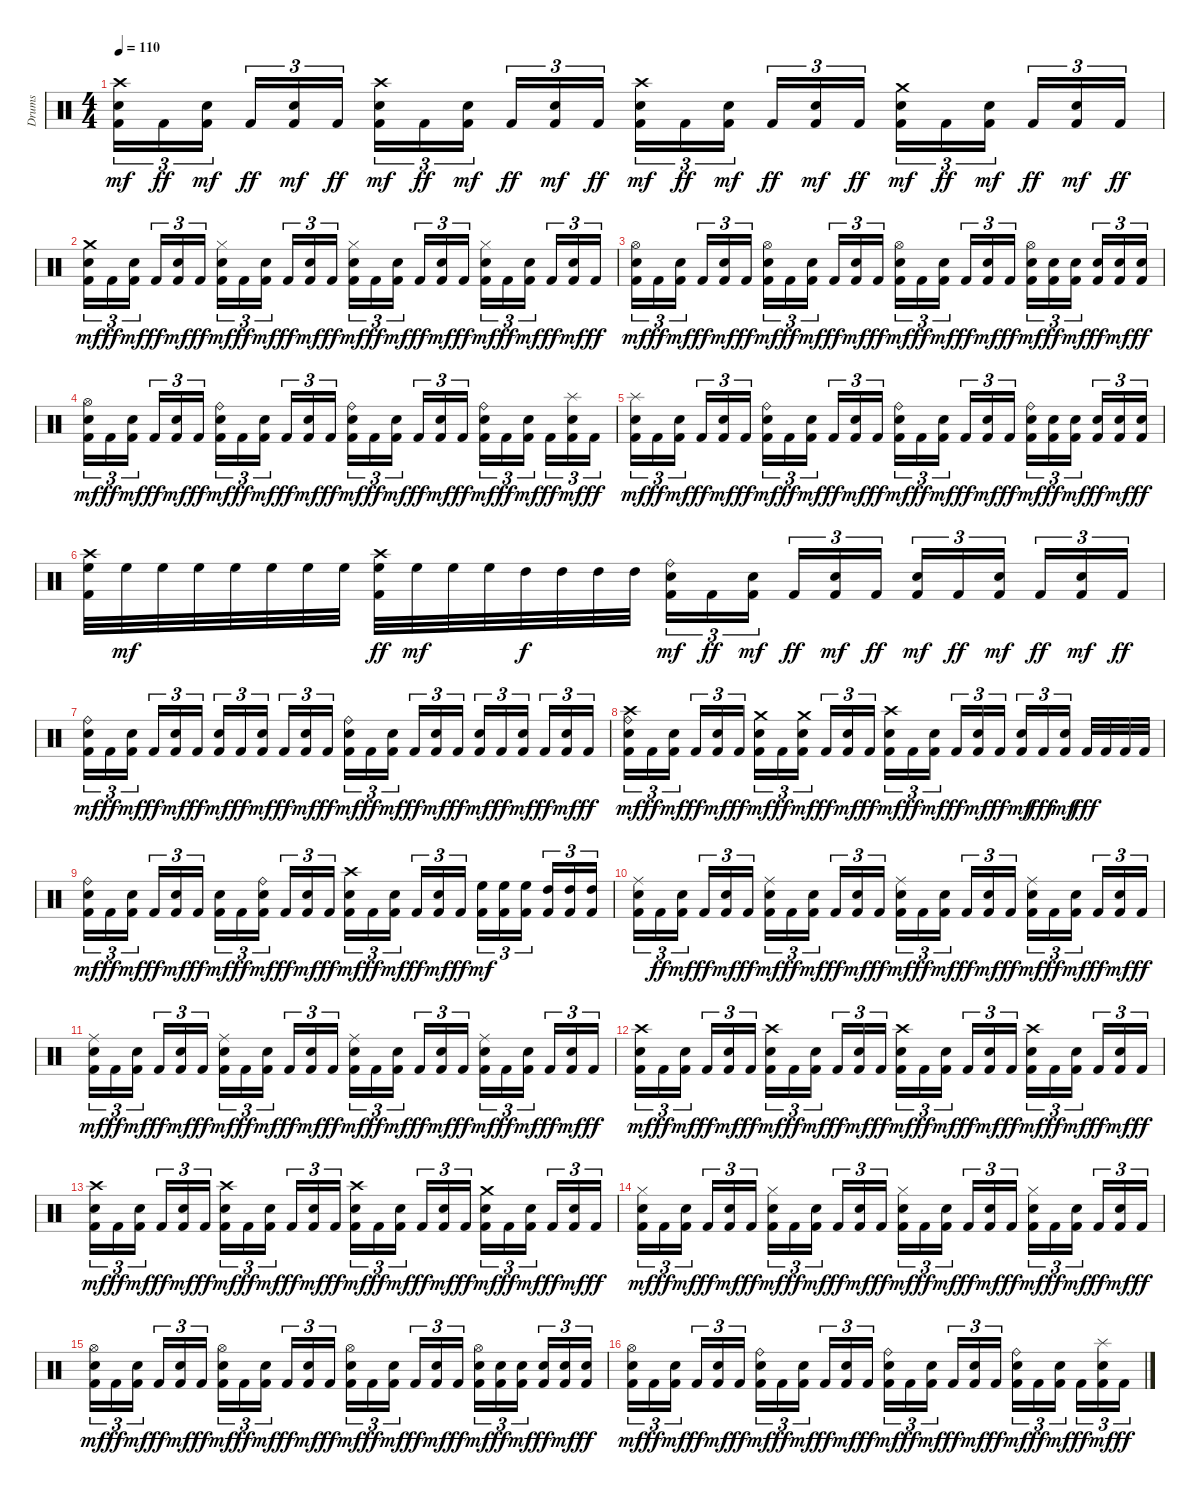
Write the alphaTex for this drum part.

\track ("Drums" "Drums") {instrument percussion}
\staff {score}
\articulation defaults
\ts (4 4)
\tempo 110
\clef neutral
\ks c
("Kick (hit) 2" "Electric Snare (hit)" "Crash high (hit)").16{tu (3 2) dy mf} "Kick (hit) 2".16{tu (3 2) dy ff} ("Kick (hit) 2" "Electric Snare (hit)").16{tu (3 2) dy mf beam splitsecondary} "Kick (hit) 2".16{tu (3 2) dy ff} ("Kick (hit) 2" "Electric Snare (hit)").16{tu (3 2) dy mf} "Kick (hit) 2".16{tu (3 2) dy ff} ("Kick (hit) 2" "Electric Snare (hit)" "Crash high (hit)").16{tu (3 2) dy mf} "Kick (hit) 2".16{tu (3 2) dy ff} ("Kick (hit) 2" "Electric Snare (hit)").16{tu (3 2) dy mf beam splitsecondary} "Kick (hit) 2".16{tu (3 2) dy ff} ("Kick (hit) 2" "Electric Snare (hit)").16{tu (3 2) dy mf} "Kick (hit) 2".16{tu (3 2) dy ff} ("Kick (hit) 2" "Electric Snare (hit)" "Crash high (hit)").16{tu (3 2) dy mf} "Kick (hit) 2".16{tu (3 2) dy ff} ("Kick (hit) 2" "Electric Snare (hit)").16{tu (3 2) dy mf beam splitsecondary} "Kick (hit) 2".16{tu (3 2) dy ff} ("Kick (hit) 2" "Electric Snare (hit)").16{tu (3 2) dy mf} "Kick (hit) 2".16{tu (3 2) dy ff} ("Kick (hit) 2" "Electric Snare (hit)" "Crash medium (hit)").16{tu (3 2) dy mf} "Kick (hit) 2".16{tu (3 2) dy ff} ("Kick (hit) 2" "Electric Snare (hit)").16{tu (3 2) dy mf beam splitsecondary} "Kick (hit) 2".16{tu (3 2) dy ff} ("Kick (hit) 2" "Electric Snare (hit)").16{tu (3 2) dy mf} "Kick (hit) 2".16{tu (3 2) dy ff} |
("Kick (hit) 2" "Electric Snare (hit)" "Crash medium (hit)").16{tu (3 2) dy mf} "Kick (hit) 2".16{tu (3 2) dy ff} ("Kick (hit) 2" "Electric Snare (hit)").16{tu (3 2) dy mf beam splitsecondary} "Kick (hit) 2".16{tu (3 2) dy ff} ("Kick (hit) 2" "Electric Snare (hit)").16{tu (3 2) dy mf} "Kick (hit) 2".16{tu (3 2) dy ff} ("Kick (hit) 2" "Electric Snare (hit)" "Hi-Hat (closed)").16{tu (3 2) dy mf} "Kick (hit) 2".16{tu (3 2) dy ff} ("Kick (hit) 2" "Electric Snare (hit)").16{tu (3 2) dy mf beam splitsecondary} "Kick (hit) 2".16{tu (3 2) dy ff} ("Kick (hit) 2" "Electric Snare (hit)").16{tu (3 2) dy mf} "Kick (hit) 2".16{tu (3 2) dy ff} ("Kick (hit) 2" "Electric Snare (hit)" "Hi-Hat (closed)").16{tu (3 2) dy mf} "Kick (hit) 2".16{tu (3 2) dy ff} ("Kick (hit) 2" "Electric Snare (hit)").16{tu (3 2) dy mf beam splitsecondary} "Kick (hit) 2".16{tu (3 2) dy ff} ("Kick (hit) 2" "Electric Snare (hit)").16{tu (3 2) dy mf} "Kick (hit) 2".16{tu (3 2) dy ff} ("Kick (hit) 2" "Electric Snare (hit)" "Hi-Hat (closed)").16{tu (3 2) dy mf} "Kick (hit) 2".16{tu (3 2) dy ff} ("Kick (hit) 2" "Electric Snare (hit)").16{tu (3 2) dy mf beam splitsecondary} "Kick (hit) 2".16{tu (3 2) dy ff} ("Kick (hit) 2" "Electric Snare (hit)").16{tu (3 2) dy mf} "Kick (hit) 2".16{tu (3 2) dy ff} |
("Kick (hit) 2" "Electric Snare (hit)" "Hi-Hat (open)").16{tu (3 2) dy mf} "Kick (hit) 2".16{tu (3 2) dy ff} ("Kick (hit) 2" "Electric Snare (hit)").16{tu (3 2) dy mf beam splitsecondary} "Kick (hit) 2".16{tu (3 2) dy ff} ("Kick (hit) 2" "Electric Snare (hit)").16{tu (3 2) dy mf} "Kick (hit) 2".16{tu (3 2) dy ff} ("Kick (hit) 2" "Electric Snare (hit)" "Hi-Hat (open)").16{tu (3 2) dy mf} "Kick (hit) 2".16{tu (3 2) dy ff} ("Kick (hit) 2" "Electric Snare (hit)").16{tu (3 2) dy mf beam splitsecondary} "Kick (hit) 2".16{tu (3 2) dy ff} ("Kick (hit) 2" "Electric Snare (hit)").16{tu (3 2) dy mf} "Kick (hit) 2".16{tu (3 2) dy ff} ("Kick (hit) 2" "Electric Snare (hit)" "Hi-Hat (open)").16{tu (3 2) dy mf} "Kick (hit) 2".16{tu (3 2) dy ff} ("Kick (hit) 2" "Electric Snare (hit)").16{tu (3 2) dy mf beam splitsecondary} "Kick (hit) 2".16{tu (3 2) dy ff} ("Kick (hit) 2" "Electric Snare (hit)").16{tu (3 2) dy mf} "Kick (hit) 2".16{tu (3 2) dy ff} ("Kick (hit) 2" "Electric Snare (hit)" "Hi-Hat (open)").16{tu (3 2) dy mf} ("Kick (hit) 2" "Electric Snare (hit)").16{tu (3 2) dy ff} ("Kick (hit) 2" "Electric Snare (hit)").16{tu (3 2) dy mf beam splitsecondary} ("Kick (hit) 2" "Electric Snare (hit)").16{tu (3 2) dy ff} ("Kick (hit) 2" "Electric Snare (hit)").16{tu (3 2) dy mf} ("Kick (hit) 2" "Electric Snare (hit)").16{tu (3 2) dy ff} |
("Kick (hit) 2" "Electric Snare (hit)" "Hi-Hat (open)").16{tu (3 2) dy mf} "Kick (hit) 2".16{tu (3 2) dy ff} ("Kick (hit) 2" "Electric Snare (hit)").16{tu (3 2) dy mf beam splitsecondary} "Kick (hit) 2".16{tu (3 2) dy ff} ("Kick (hit) 2" "Electric Snare (hit)").16{tu (3 2) dy mf} "Kick (hit) 2".16{tu (3 2) dy ff} ("Kick (hit) 2" "Electric Snare (hit)" "Ride (bell)").16{tu (3 2) dy mf} "Kick (hit) 2".16{tu (3 2) dy ff} ("Kick (hit) 2" "Electric Snare (hit)").16{tu (3 2) dy mf beam splitsecondary} "Kick (hit) 2".16{tu (3 2) dy ff} ("Kick (hit) 2" "Electric Snare (hit)").16{tu (3 2) dy mf} "Kick (hit) 2".16{tu (3 2) dy ff} ("Kick (hit) 2" "Electric Snare (hit)" "Ride (bell)").16{tu (3 2) dy mf} "Kick (hit) 2".16{tu (3 2) dy ff} ("Kick (hit) 2" "Electric Snare (hit)").16{tu (3 2) dy mf beam splitsecondary} "Kick (hit) 2".16{tu (3 2) dy ff} ("Kick (hit) 2" "Electric Snare (hit)").16{tu (3 2) dy mf} "Kick (hit) 2".16{tu (3 2) dy ff} ("Kick (hit) 2" "Electric Snare (hit)" "Ride (bell)").16{tu (3 2) dy mf} "Kick (hit) 2".16{tu (3 2) dy ff} ("Kick (hit) 2" "Electric Snare (hit)").16{tu (3 2) dy mf beam splitsecondary} "Kick (hit) 2".16{tu (3 2) dy ff} ("Kick (hit) 2" "Electric Snare (hit)" "Splash (hit)").16{tu (3 2) dy mf} "Kick (hit) 2".16{tu (3 2) dy ff} |
("Kick (hit) 2" "Electric Snare (hit)" "Splash (hit)").16{tu (3 2) dy mf} "Kick (hit) 2".16{tu (3 2) dy ff} ("Kick (hit) 2" "Electric Snare (hit)").16{tu (3 2) dy mf beam splitsecondary} "Kick (hit) 2".16{tu (3 2) dy ff} ("Kick (hit) 2" "Electric Snare (hit)").16{tu (3 2) dy mf} "Kick (hit) 2".16{tu (3 2) dy ff} ("Kick (hit) 2" "Electric Snare (hit)" "Ride (bell)").16{tu (3 2) dy mf} "Kick (hit) 2".16{tu (3 2) dy ff} ("Kick (hit) 2" "Electric Snare (hit)").16{tu (3 2) dy mf beam splitsecondary} "Kick (hit) 2".16{tu (3 2) dy ff} ("Kick (hit) 2" "Electric Snare (hit)").16{tu (3 2) dy mf} "Kick (hit) 2".16{tu (3 2) dy ff} ("Kick (hit) 2" "Electric Snare (hit)" "Ride (bell)").16{tu (3 2) dy mf} "Kick (hit) 2".16{tu (3 2) dy ff} ("Kick (hit) 2" "Electric Snare (hit)").16{tu (3 2) dy mf beam splitsecondary} "Kick (hit) 2".16{tu (3 2) dy ff} ("Kick (hit) 2" "Electric Snare (hit)").16{tu (3 2) dy mf} "Kick (hit) 2".16{tu (3 2) dy ff} ("Kick (hit) 2" "Electric Snare (hit)" "Ride (bell)").16{tu (3 2) dy mf} ("Kick (hit) 2" "Electric Snare (hit)").16{tu (3 2) dy ff} ("Kick (hit) 2" "Electric Snare (hit)").16{tu (3 2) dy mf beam splitsecondary} ("Kick (hit) 2" "Electric Snare (hit)").16{tu (3 2) dy ff} ("Kick (hit) 2" "Electric Snare (hit)").16{tu (3 2) dy mf} ("Kick (hit) 2" "Electric Snare (hit)").16{tu (3 2) dy ff} |
("Kick (hit) 2" "High Floor Tom (hit)" "Crash high (hit)").32 "High Floor Tom (hit)".32{dy mf} "High Floor Tom (hit)".32 "High Floor Tom (hit)".32 "High Floor Tom (hit)".32 "High Floor Tom (hit)".32 "High Floor Tom (hit)".32 "High Floor Tom (hit)".32 ("Kick (hit) 2" "High Floor Tom (hit)" "Crash high (hit)").32{dy ff} "High Floor Tom (hit)".32{dy mf} "High Floor Tom (hit)".32 "High Floor Tom (hit)".32 "High Tom (hit)".32{dy f} "High Tom (hit)".32 "High Tom (hit)".32 "High Tom (hit)".32 ("Kick (hit) 2" "Electric Snare (hit)" "Ride (bell)").16{tu (3 2) dy mf} "Kick (hit) 2".16{tu (3 2) dy ff} ("Kick (hit) 2" "Electric Snare (hit)").16{tu (3 2) dy mf beam splitsecondary} "Kick (hit) 2".16{tu (3 2) dy ff} ("Kick (hit) 2" "Electric Snare (hit)").16{tu (3 2) dy mf} "Kick (hit) 2".16{tu (3 2) dy ff} ("Kick (hit) 2" "Electric Snare (hit)").16{tu (3 2) dy mf} "Kick (hit) 2".16{tu (3 2) dy ff} ("Kick (hit) 2" "Electric Snare (hit)").16{tu (3 2) dy mf beam splitsecondary} "Kick (hit) 2".16{tu (3 2) dy ff} ("Kick (hit) 2" "Electric Snare (hit)").16{tu (3 2) dy mf} "Kick (hit) 2".16{tu (3 2) dy ff} |
("Kick (hit) 2" "Electric Snare (hit)" "Ride (bell)").16{tu (3 2) dy mf} "Kick (hit) 2".16{tu (3 2) dy ff} ("Kick (hit) 2" "Electric Snare (hit)").16{tu (3 2) dy mf beam splitsecondary} "Kick (hit) 2".16{tu (3 2) dy ff} ("Kick (hit) 2" "Electric Snare (hit)").16{tu (3 2) dy mf} "Kick (hit) 2".16{tu (3 2) dy ff} ("Kick (hit) 2" "Electric Snare (hit)").16{tu (3 2) dy mf} "Kick (hit) 2".16{tu (3 2) dy ff} ("Kick (hit) 2" "Electric Snare (hit)").16{tu (3 2) dy mf beam splitsecondary} "Kick (hit) 2".16{tu (3 2) dy ff} ("Kick (hit) 2" "Electric Snare (hit)").16{tu (3 2) dy mf} "Kick (hit) 2".16{tu (3 2) dy ff} ("Kick (hit) 2" "Electric Snare (hit)" "Ride (bell)").16{tu (3 2) dy mf} "Kick (hit) 2".16{tu (3 2) dy ff} ("Kick (hit) 2" "Electric Snare (hit)").16{tu (3 2) dy mf beam splitsecondary} "Kick (hit) 2".16{tu (3 2) dy ff} ("Kick (hit) 2" "Electric Snare (hit)").16{tu (3 2) dy mf} "Kick (hit) 2".16{tu (3 2) dy ff} ("Kick (hit) 2" "Electric Snare (hit)").16{tu (3 2) dy mf} "Kick (hit) 2".16{tu (3 2) dy ff} ("Kick (hit) 2" "Electric Snare (hit)").16{tu (3 2) dy mf beam splitsecondary} "Kick (hit) 2".16{tu (3 2) dy ff} ("Kick (hit) 2" "Electric Snare (hit)").16{tu (3 2) dy mf} "Kick (hit) 2".16{tu (3 2) dy ff} |
("Kick (hit) 2" "Electric Snare (hit)" "Crash high (hit)" "Ride (bell)").16{tu (3 2) dy mf} "Kick (hit) 2".16{tu (3 2) dy ff} ("Kick (hit) 2" "Electric Snare (hit)").16{tu (3 2) dy mf beam splitsecondary} "Kick (hit) 2".16{tu (3 2) dy ff} ("Kick (hit) 2" "Electric Snare (hit)").16{tu (3 2) dy mf} "Kick (hit) 2".16{tu (3 2) dy ff} ("Kick (hit) 2" "Electric Snare (hit)" "Crash medium (hit)").16{tu (3 2) dy mf} "Kick (hit) 2".16{tu (3 2) dy ff} ("Kick (hit) 2" "Electric Snare (hit)" "Crash medium (hit)").16{tu (3 2) dy mf beam splitsecondary} "Kick (hit) 2".16{tu (3 2) dy ff} ("Kick (hit) 2" "Electric Snare (hit)").16{tu (3 2) dy mf} "Kick (hit) 2".16{tu (3 2) dy ff} ("Kick (hit) 2" "Electric Snare (hit)" "Crash high (hit)").16{tu (3 2) dy mf} "Kick (hit) 2".16{tu (3 2) dy ff} ("Kick (hit) 2" "Electric Snare (hit)").16{tu (3 2) dy mf beam splitsecondary} "Kick (hit) 2".16{tu (3 2) dy ff} ("Kick (hit) 2" "Electric Snare (hit)").16{tu (3 2) dy mf} "Kick (hit) 2".16{tu (3 2) dy ff} ("Kick (hit) 2" "Electric Snare (hit)").16{tu (3 2) dy mf} "Kick (hit) 2".16{tu (3 2) dy fff} ("Kick (hit) 2" "Electric Snare (hit)").16{tu (3 2) dy mf beam splitsecondary} "Kick (hit) 2".32{dy fff} "Kick (hit) 2".32 "Kick (hit) 2".32 "Kick (hit) 2".32 |
("Kick (hit) 2" "Electric Snare (hit)" "Ride (bell)").16{tu (3 2) dy mf} "Kick (hit) 2".16{tu (3 2) dy ff} ("Kick (hit) 2" "Electric Snare (hit)").16{tu (3 2) dy mf beam splitsecondary} "Kick (hit) 2".16{tu (3 2) dy ff} ("Kick (hit) 2" "Electric Snare (hit)").16{tu (3 2) dy mf} "Kick (hit) 2".16{tu (3 2) dy ff} ("Kick (hit) 2" "Electric Snare (hit)").16{tu (3 2) dy mf} "Kick (hit) 2".16{tu (3 2) dy ff} ("Kick (hit) 2" "Electric Snare (hit)" "Ride (bell)").16{tu (3 2) dy mf beam splitsecondary} "Kick (hit) 2".16{tu (3 2) dy ff} ("Kick (hit) 2" "Electric Snare (hit)").16{tu (3 2) dy mf} "Kick (hit) 2".16{tu (3 2) dy ff} ("Kick (hit) 2" "Electric Snare (hit)" "Crash high (hit)").16{tu (3 2) dy mf} "Kick (hit) 2".16{tu (3 2) dy ff} ("Kick (hit) 2" "Electric Snare (hit)").16{tu (3 2) dy mf beam splitsecondary} "Kick (hit) 2".16{tu (3 2) dy ff} ("Kick (hit) 2" "Electric Snare (hit)").16{tu (3 2) dy mf} "Kick (hit) 2".16{tu (3 2) dy ff} ("Kick (hit) 2" "High Floor Tom (hit)").16{tu (3 2) dy mf} ("Kick (hit) 2" "High Floor Tom (hit)").16{tu (3 2)} ("Kick (hit) 2" "High Floor Tom (hit)").16{tu (3 2) beam splitsecondary} ("Kick (hit) 2" "High Tom (hit)").16{tu (3 2)} ("Kick (hit) 2" "High Tom (hit)").16{tu (3 2)} ("Kick (hit) 2" "High Tom (hit)").16{tu (3 2)} |
("Kick (hit) 2" "Electric Snare (hit)" "Ride (middle)").16{tu (3 2)} "Kick (hit) 2".16{tu (3 2) dy ff} ("Kick (hit) 2" "Electric Snare (hit)").16{tu (3 2) dy mf beam splitsecondary} "Kick (hit) 2".16{tu (3 2) dy ff} ("Kick (hit) 2" "Electric Snare (hit)").16{tu (3 2) dy mf} "Kick (hit) 2".16{tu (3 2) dy ff} ("Kick (hit) 2" "Electric Snare (hit)" "Ride (middle)").16{tu (3 2) dy mf} "Kick (hit) 2".16{tu (3 2) dy ff} ("Kick (hit) 2" "Electric Snare (hit)").16{tu (3 2) dy mf beam splitsecondary} "Kick (hit) 2".16{tu (3 2) dy ff} ("Kick (hit) 2" "Electric Snare (hit)").16{tu (3 2) dy mf} "Kick (hit) 2".16{tu (3 2) dy ff} ("Kick (hit) 2" "Electric Snare (hit)" "Ride (middle)").16{tu (3 2) dy mf} "Kick (hit) 2".16{tu (3 2) dy ff} ("Kick (hit) 2" "Electric Snare (hit)").16{tu (3 2) dy mf beam splitsecondary} "Kick (hit) 2".16{tu (3 2) dy ff} ("Kick (hit) 2" "Electric Snare (hit)").16{tu (3 2) dy mf} "Kick (hit) 2".16{tu (3 2) dy ff} ("Kick (hit) 2" "Electric Snare (hit)" "Ride (middle)").16{tu (3 2) dy mf} "Kick (hit) 2".16{tu (3 2) dy ff} ("Kick (hit) 2" "Electric Snare (hit)").16{tu (3 2) dy mf beam splitsecondary} "Kick (hit) 2".16{tu (3 2) dy ff} ("Kick (hit) 2" "Electric Snare (hit)").16{tu (3 2) dy mf} "Kick (hit) 2".16{tu (3 2) dy ff} |
("Kick (hit) 2" "Electric Snare (hit)" "Ride (middle)").16{tu (3 2) dy mf} "Kick (hit) 2".16{tu (3 2) dy ff} ("Kick (hit) 2" "Electric Snare (hit)").16{tu (3 2) dy mf beam splitsecondary} "Kick (hit) 2".16{tu (3 2) dy ff} ("Kick (hit) 2" "Electric Snare (hit)").16{tu (3 2) dy mf} "Kick (hit) 2".16{tu (3 2) dy ff} ("Kick (hit) 2" "Electric Snare (hit)" "Ride (middle)").16{tu (3 2) dy mf} "Kick (hit) 2".16{tu (3 2) dy ff} ("Kick (hit) 2" "Electric Snare (hit)").16{tu (3 2) dy mf beam splitsecondary} "Kick (hit) 2".16{tu (3 2) dy ff} ("Kick (hit) 2" "Electric Snare (hit)").16{tu (3 2) dy mf} "Kick (hit) 2".16{tu (3 2) dy ff} ("Kick (hit) 2" "Electric Snare (hit)" "Ride (middle)").16{tu (3 2) dy mf} "Kick (hit) 2".16{tu (3 2) dy ff} ("Kick (hit) 2" "Electric Snare (hit)").16{tu (3 2) dy mf beam splitsecondary} "Kick (hit) 2".16{tu (3 2) dy ff} ("Kick (hit) 2" "Electric Snare (hit)").16{tu (3 2) dy mf} "Kick (hit) 2".16{tu (3 2) dy ff} ("Kick (hit) 2" "Electric Snare (hit)" "Ride (middle)").16{tu (3 2) dy mf} "Kick (hit) 2".16{tu (3 2) dy ff} ("Kick (hit) 2" "Electric Snare (hit)").16{tu (3 2) dy mf beam splitsecondary} "Kick (hit) 2".16{tu (3 2) dy ff} ("Kick (hit) 2" "Electric Snare (hit)").16{tu (3 2) dy mf} "Kick (hit) 2".16{tu (3 2) dy ff} |
("Kick (hit) 2" "Electric Snare (hit)" "Crash high (hit)").16{tu (3 2) dy mf} "Kick (hit) 2".16{tu (3 2) dy ff} ("Kick (hit) 2" "Electric Snare (hit)").16{tu (3 2) dy mf beam splitsecondary} "Kick (hit) 2".16{tu (3 2) dy ff} ("Kick (hit) 2" "Electric Snare (hit)").16{tu (3 2) dy mf} "Kick (hit) 2".16{tu (3 2) dy ff} ("Kick (hit) 2" "Electric Snare (hit)" "Crash high (hit)").16{tu (3 2) dy mf} "Kick (hit) 2".16{tu (3 2) dy ff} ("Kick (hit) 2" "Electric Snare (hit)").16{tu (3 2) dy mf beam splitsecondary} "Kick (hit) 2".16{tu (3 2) dy ff} ("Kick (hit) 2" "Electric Snare (hit)").16{tu (3 2) dy mf} "Kick (hit) 2".16{tu (3 2) dy ff} ("Kick (hit) 2" "Electric Snare (hit)" "Crash high (hit)").16{tu (3 2) dy mf} "Kick (hit) 2".16{tu (3 2) dy ff} ("Kick (hit) 2" "Electric Snare (hit)").16{tu (3 2) dy mf beam splitsecondary} "Kick (hit) 2".16{tu (3 2) dy ff} ("Kick (hit) 2" "Electric Snare (hit)").16{tu (3 2) dy mf} "Kick (hit) 2".16{tu (3 2) dy ff} ("Kick (hit) 2" "Electric Snare (hit)" "Crash high (hit)").16{tu (3 2) dy mf} "Kick (hit) 2".16{tu (3 2) dy ff} ("Kick (hit) 2" "Electric Snare (hit)").16{tu (3 2) dy mf beam splitsecondary} "Kick (hit) 2".16{tu (3 2) dy ff} ("Kick (hit) 2" "Electric Snare (hit)").16{tu (3 2) dy mf} "Kick (hit) 2".16{tu (3 2) dy ff} |
("Kick (hit) 2" "Electric Snare (hit)" "Crash high (hit)").16{tu (3 2) dy mf} "Kick (hit) 2".16{tu (3 2) dy ff} ("Kick (hit) 2" "Electric Snare (hit)").16{tu (3 2) dy mf beam splitsecondary} "Kick (hit) 2".16{tu (3 2) dy ff} ("Kick (hit) 2" "Electric Snare (hit)").16{tu (3 2) dy mf} "Kick (hit) 2".16{tu (3 2) dy ff} ("Kick (hit) 2" "Electric Snare (hit)" "Crash high (hit)").16{tu (3 2) dy mf} "Kick (hit) 2".16{tu (3 2) dy ff} ("Kick (hit) 2" "Electric Snare (hit)").16{tu (3 2) dy mf beam splitsecondary} "Kick (hit) 2".16{tu (3 2) dy ff} ("Kick (hit) 2" "Electric Snare (hit)").16{tu (3 2) dy mf} "Kick (hit) 2".16{tu (3 2) dy ff} ("Kick (hit) 2" "Electric Snare (hit)" "Crash high (hit)").16{tu (3 2) dy mf} "Kick (hit) 2".16{tu (3 2) dy ff} ("Kick (hit) 2" "Electric Snare (hit)").16{tu (3 2) dy mf beam splitsecondary} "Kick (hit) 2".16{tu (3 2) dy ff} ("Kick (hit) 2" "Electric Snare (hit)").16{tu (3 2) dy mf} "Kick (hit) 2".16{tu (3 2) dy ff} ("Kick (hit) 2" "Electric Snare (hit)" "Crash medium (hit)").16{tu (3 2) dy mf} "Kick (hit) 2".16{tu (3 2) dy ff} ("Kick (hit) 2" "Electric Snare (hit)").16{tu (3 2) dy mf beam splitsecondary} "Kick (hit) 2".16{tu (3 2) dy ff} ("Kick (hit) 2" "Electric Snare (hit)").16{tu (3 2) dy mf} "Kick (hit) 2".16{tu (3 2) dy ff} |
("Kick (hit) 2" "Electric Snare (hit)" "Hi-Hat (closed)").16{tu (3 2) dy mf} "Kick (hit) 2".16{tu (3 2) dy ff} ("Kick (hit) 2" "Electric Snare (hit)").16{tu (3 2) dy mf beam splitsecondary} "Kick (hit) 2".16{tu (3 2) dy ff} ("Kick (hit) 2" "Electric Snare (hit)").16{tu (3 2) dy mf} "Kick (hit) 2".16{tu (3 2) dy ff} ("Kick (hit) 2" "Electric Snare (hit)" "Hi-Hat (closed)").16{tu (3 2) dy mf} "Kick (hit) 2".16{tu (3 2) dy ff} ("Kick (hit) 2" "Electric Snare (hit)").16{tu (3 2) dy mf beam splitsecondary} "Kick (hit) 2".16{tu (3 2) dy ff} ("Kick (hit) 2" "Electric Snare (hit)").16{tu (3 2) dy mf} "Kick (hit) 2".16{tu (3 2) dy ff} ("Kick (hit) 2" "Electric Snare (hit)" "Hi-Hat (closed)").16{tu (3 2) dy mf} "Kick (hit) 2".16{tu (3 2) dy ff} ("Kick (hit) 2" "Electric Snare (hit)").16{tu (3 2) dy mf beam splitsecondary} "Kick (hit) 2".16{tu (3 2) dy ff} ("Kick (hit) 2" "Electric Snare (hit)").16{tu (3 2) dy mf} "Kick (hit) 2".16{tu (3 2) dy ff} ("Kick (hit) 2" "Electric Snare (hit)" "Hi-Hat (closed)").16{tu (3 2) dy mf} "Kick (hit) 2".16{tu (3 2) dy ff} ("Kick (hit) 2" "Electric Snare (hit)").16{tu (3 2) dy mf beam splitsecondary} "Kick (hit) 2".16{tu (3 2) dy ff} ("Kick (hit) 2" "Electric Snare (hit)").16{tu (3 2) dy mf} "Kick (hit) 2".16{tu (3 2) dy ff} |
("Kick (hit) 2" "Electric Snare (hit)" "Hi-Hat (open)").16{tu (3 2) dy mf} "Kick (hit) 2".16{tu (3 2) dy ff} ("Kick (hit) 2" "Electric Snare (hit)").16{tu (3 2) dy mf beam splitsecondary} "Kick (hit) 2".16{tu (3 2) dy ff} ("Kick (hit) 2" "Electric Snare (hit)").16{tu (3 2) dy mf} "Kick (hit) 2".16{tu (3 2) dy ff} ("Kick (hit) 2" "Electric Snare (hit)" "Hi-Hat (open)").16{tu (3 2) dy mf} "Kick (hit) 2".16{tu (3 2) dy ff} ("Kick (hit) 2" "Electric Snare (hit)").16{tu (3 2) dy mf beam splitsecondary} "Kick (hit) 2".16{tu (3 2) dy ff} ("Kick (hit) 2" "Electric Snare (hit)").16{tu (3 2) dy mf} "Kick (hit) 2".16{tu (3 2) dy ff} ("Kick (hit) 2" "Electric Snare (hit)" "Hi-Hat (open)").16{tu (3 2) dy mf} "Kick (hit) 2".16{tu (3 2) dy ff} ("Kick (hit) 2" "Electric Snare (hit)").16{tu (3 2) dy mf beam splitsecondary} "Kick (hit) 2".16{tu (3 2) dy ff} ("Kick (hit) 2" "Electric Snare (hit)").16{tu (3 2) dy mf} "Kick (hit) 2".16{tu (3 2) dy ff} ("Kick (hit) 2" "Electric Snare (hit)" "Hi-Hat (open)").16{tu (3 2) dy mf} ("Kick (hit) 2" "Electric Snare (hit)").16{tu (3 2) dy ff} ("Kick (hit) 2" "Electric Snare (hit)").16{tu (3 2) dy mf beam splitsecondary} ("Kick (hit) 2" "Electric Snare (hit)").16{tu (3 2) dy ff} ("Kick (hit) 2" "Electric Snare (hit)").16{tu (3 2) dy mf} ("Kick (hit) 2" "Electric Snare (hit)").16{tu (3 2) dy ff} |
("Kick (hit) 2" "Electric Snare (hit)" "Hi-Hat (open)").16{tu (3 2) dy mf} "Kick (hit) 2".16{tu (3 2) dy ff} ("Kick (hit) 2" "Electric Snare (hit)").16{tu (3 2) dy mf beam splitsecondary} "Kick (hit) 2".16{tu (3 2) dy ff} ("Kick (hit) 2" "Electric Snare (hit)").16{tu (3 2) dy mf} "Kick (hit) 2".16{tu (3 2) dy ff} ("Kick (hit) 2" "Electric Snare (hit)" "Ride (bell)").16{tu (3 2) dy mf} "Kick (hit) 2".16{tu (3 2) dy ff} ("Kick (hit) 2" "Electric Snare (hit)").16{tu (3 2) dy mf beam splitsecondary} "Kick (hit) 2".16{tu (3 2) dy ff} ("Kick (hit) 2" "Electric Snare (hit)").16{tu (3 2) dy mf} "Kick (hit) 2".16{tu (3 2) dy ff} ("Kick (hit) 2" "Electric Snare (hit)" "Ride (bell)").16{tu (3 2) dy mf} "Kick (hit) 2".16{tu (3 2) dy ff} ("Kick (hit) 2" "Electric Snare (hit)").16{tu (3 2) dy mf beam splitsecondary} "Kick (hit) 2".16{tu (3 2) dy ff} ("Kick (hit) 2" "Electric Snare (hit)").16{tu (3 2) dy mf} "Kick (hit) 2".16{tu (3 2) dy ff} ("Kick (hit) 2" "Electric Snare (hit)" "Ride (bell)").16{tu (3 2) dy mf} "Kick (hit) 2".16{tu (3 2) dy ff} ("Kick (hit) 2" "Electric Snare (hit)").16{tu (3 2) dy mf beam splitsecondary} "Kick (hit) 2".16{tu (3 2) dy ff} ("Kick (hit) 2" "Electric Snare (hit)" "Splash (hit)").16{tu (3 2) dy mf} "Kick (hit) 2".16{tu (3 2) dy ff}
